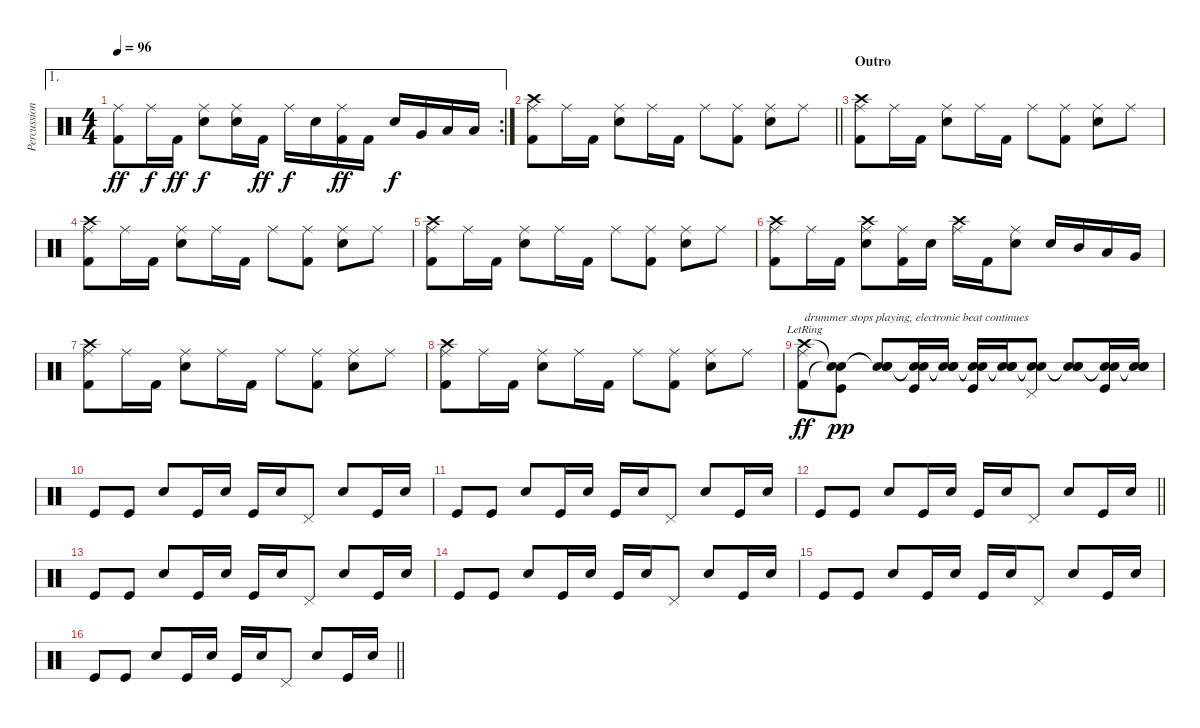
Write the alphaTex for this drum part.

\track ("Percussion" "Percussion") {instrument percussion}
\staff {score}
\articulation defaults
\ae 1
\rc 2
\ts (4 4)
\tempo 96
\clef neutral
\ks c
("Ride (middle)" "Kick (hit) 2").8{dy ff} "Ride (middle)".16{dy f} "Kick (hit) 2".16{dy ff} ("Ride (middle)" "Electric Snare (hit)").8{dy f} ("Ride (middle)" "Electric Snare (hit)").16 "Kick (hit) 2".16{dy ff} "Ride (middle)".16{dy f} "Electric Snare (hit)".16 ("Ride (middle)" "Kick (hit) 2").16{dy ff} "Kick (hit) 2".16 "Electric Snare (hit)".16{dy f} "Very Low Tom (hit)".16 "Low Floor Tom (hit)".16 "Low Floor Tom (hit)".16 |
\barLineRight lightlight
("Crash high (hit)" "Ride (middle)" "Kick (hit) 2").8 "Ride (middle)".16 "Kick (hit) 2".16 ("Ride (middle)" "Electric Snare (hit)").8 "Ride (middle)".16 "Kick (hit) 2".16 "Ride (middle)".8 ("Ride (middle)" "Kick (hit) 2").8 ("Ride (middle)" "Electric Snare (hit)").8 "Ride (middle)".8 |
\section ("" "Outro")
("Crash high (hit)" "Ride (middle)" "Kick (hit) 2").8 "Ride (middle)".16 "Kick (hit) 2".16 ("Ride (middle)" "Electric Snare (hit)").8 "Ride (middle)".16 "Kick (hit) 2".16 "Ride (middle)".8 ("Ride (middle)" "Kick (hit) 2").8 ("Ride (middle)" "Electric Snare (hit)").8 "Ride (middle)".8 |
("Crash high (hit)" "Ride (middle)" "Kick (hit) 2").8 "Ride (middle)".16 "Kick (hit) 2".16 ("Ride (middle)" "Electric Snare (hit)").8 "Ride (middle)".16 "Kick (hit) 2".16 "Ride (middle)".8 ("Ride (middle)" "Kick (hit) 2").8 ("Ride (middle)" "Electric Snare (hit)").8 "Ride (middle)".8 |
("Crash high (hit)" "Ride (middle)" "Kick (hit) 2").8 "Ride (middle)".16 "Kick (hit) 2".16 ("Ride (middle)" "Electric Snare (hit)").8 "Ride (middle)".16 "Kick (hit) 2".16 "Ride (middle)".8 ("Ride (middle)" "Kick (hit) 2").8 ("Ride (middle)" "Electric Snare (hit)").8 "Ride (middle)".8 |
("Crash high (hit)" "Ride (middle)" "Kick (hit) 2").8 "Ride (middle)".16 "Kick (hit) 2".16 ("Crash high (hit)" "Ride (middle)" "Electric Snare (hit)").8 ("Ride (middle)" "Kick (hit) 2").16 "Electric Snare (hit)".16 ("Crash high (hit)" "Ride (middle)").16 "Kick (hit) 2".16 ("Ride (middle)" "Electric Snare (hit)").8 "Electric Snare (hit)".16 "Mid Tom (hit)".16 "Low Tom (hit)".16 "Very Low Tom (hit)".16 |
("Crash high (hit)" "Ride (middle)" "Kick (hit) 2").8 "Ride (middle)".16 "Kick (hit) 2".16 ("Ride (middle)" "Electric Snare (hit)").8 "Ride (middle)".16 "Kick (hit) 2".16 "Ride (middle)".8 ("Ride (middle)" "Kick (hit) 2").8 ("Ride (middle)" "Electric Snare (hit)").8 "Ride (middle)".8 |
("Crash high (hit)" "Ride (middle)" "Kick (hit) 2").8 "Ride (middle)".16 "Kick (hit) 2".16 ("Ride (middle)" "Electric Snare (hit)").8 "Ride (middle)".16 "Kick (hit) 2".16 "Ride (middle)".8 ("Ride (middle)" "Kick (hit) 2").8 ("Ride (middle)" "Electric Snare (hit)").8 "Ride (middle)".8 |
("Crash high (hit)"{lr} "Ride (middle)"{lr} "Kick (hit) 2"{lr}).8{txt "drummer stops playing, electronic beat continues" dy ff} ("Snare (hit)"{t} "Kick (hit)" "Snare (hit)"{t}).8{dy pp} ("Snare (hit)"{t} "Hand Clap (hit)" "Snare (hit)"{t}).8 ("Snare (hit)"{t} "Kick (hit)" "Snare (hit)"{t}).16 ("Snare (hit)"{t} "Hand Clap (hit)" "Snare (hit)"{t}).16 ("Snare (hit)"{t} "Kick (hit)" "Snare (hit)"{t}).16 ("Snare (hit)"{t} "Hand Clap (hit)" "Snare (hit)"{t}).16 ("Snare (hit)"{t} "Pedal Hi-Hat (hit)" "Snare (hit)"{t}).8 ("Snare (hit)"{t} "Hand Clap (hit)" "Snare (hit)"{t}).8 ("Snare (hit)"{t} "Kick (hit)" "Snare (hit)"{t}).16 ("Snare (hit)"{t} "Hand Clap (hit)" "Snare (hit)"{t}).16 |
"Kick (hit)".8 "Kick (hit)".8 "Hand Clap (hit)".8 "Kick (hit)".16 "Hand Clap (hit)".16 "Kick (hit)".16 "Hand Clap (hit)".16 "Pedal Hi-Hat (hit)".8 "Hand Clap (hit)".8 "Kick (hit)".16 "Hand Clap (hit)".16 |
"Kick (hit)".8 "Kick (hit)".8 "Hand Clap (hit)".8 "Kick (hit)".16 "Hand Clap (hit)".16 "Kick (hit)".16 "Hand Clap (hit)".16 "Pedal Hi-Hat (hit)".8 "Hand Clap (hit)".8 "Kick (hit)".16 "Hand Clap (hit)".16 |
\barLineRight lightlight "Kick (hit)".8{volume 10} "Kick (hit)".8 "Hand Clap (hit)".8 "Kick (hit)".16 "Hand Clap (hit)".16 "Kick (hit)".16 "Hand Clap (hit)".16 "Pedal Hi-Hat (hit)".8 "Hand Clap (hit)".8 "Kick (hit)".16 "Hand Clap (hit)".16
|
"Kick (hit)".8 "Kick (hit)".8 "Hand Clap (hit)".8 "Kick (hit)".16 "Hand Clap (hit)".16 "Kick (hit)".16 "Hand Clap (hit)".16 "Pedal Hi-Hat (hit)".8 "Hand Clap (hit)".8 "Kick (hit)".16 "Hand Clap (hit)".16 |
"Kick (hit)".8{volume 7} "Kick (hit)".8 "Hand Clap (hit)".8 "Kick (hit)".16 "Hand Clap (hit)".16 "Kick (hit)".16 "Hand Clap (hit)".16 "Pedal Hi-Hat (hit)".8 "Hand Clap (hit)".8 "Kick (hit)".16 "Hand Clap (hit)".16 |
"Kick (hit)".8 "Kick (hit)".8 "Hand Clap (hit)".8 "Kick (hit)".16 "Hand Clap (hit)".16 "Kick (hit)".16 "Hand Clap (hit)".16 "Pedal Hi-Hat (hit)".8 "Hand Clap (hit)".8 "Kick (hit)".16 "Hand Clap (hit)".16 |
\barLineRight lightlight "Kick (hit)".8{volume 2} "Kick (hit)".8 "Hand Clap (hit)".8 "Kick (hit)".16 "Hand Clap (hit)".16 "Kick (hit)".16 "Hand Clap (hit)".16 "Pedal Hi-Hat (hit)".8 "Hand Clap (hit)".8 "Kick (hit)".16 "Hand Clap (hit)".16
